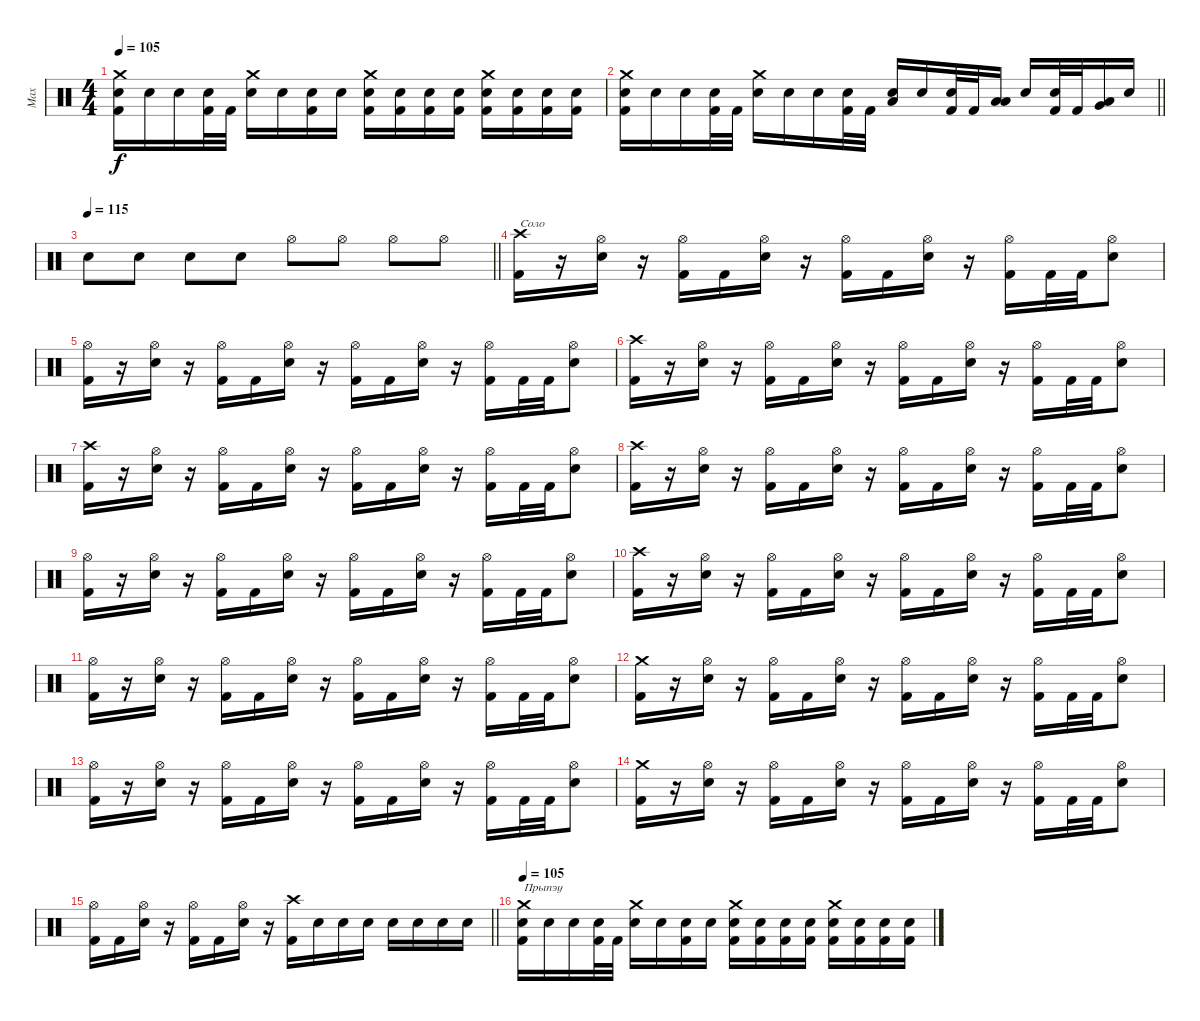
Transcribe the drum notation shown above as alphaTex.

\track ("Max" "Max") {instrument percussion}
\staff {score}
\articulation defaults
\ts (4 4)
\tempo 105
\clef neutral
\ks c
("Crash medium (hit)" "Snare (hit)" "Kick (hit) 2").16{dy f} "Snare (hit)".16 "Snare (hit)".16 ("Snare (hit)" "Kick (hit) 2").32 "Kick (hit) 2".32 ("Crash medium (hit)" "Electric Snare (hit)").16 "Snare (hit)".16 ("Snare (hit)" "Kick (hit) 2").16 "Snare (hit)".16 ("Crash medium (hit)" "Snare (hit)" "Kick (hit) 2").16 ("Snare (hit)" "Kick (hit) 2").16 ("Snare (hit)" "Kick (hit) 2").16 ("Snare (hit)" "Kick (hit) 2").16 ("Crash medium (hit)" "Electric Snare (hit)" "Kick (hit) 2").16 ("Snare (hit)" "Kick (hit) 2").16 ("Snare (hit)" "Kick (hit) 2").16 ("Snare (hit)" "Kick (hit) 2").16 |
\barLineRight lightlight
("Crash medium (hit)" "Snare (hit)" "Kick (hit) 2").16 "Snare (hit)".16 "Snare (hit)".16 ("Snare (hit)" "Kick (hit) 2").32 "Kick (hit) 2".32 ("Crash medium (hit)" "Electric Snare (hit)").16 "Snare (hit)".16 "Snare (hit)".16 ("Snare (hit)" "Kick (hit) 2").32 "Kick (hit) 2".32 ("Low Floor Tom (hit)" "Electric Snare (hit)").16 "Snare (hit)".16 ("Snare (hit)" "Kick (hit) 2").32 "Kick (hit) 2".32 ("Low Floor Tom (hit)" "Low Tom (hit)").16 "Snare (hit)".16 ("Snare (hit)" "Kick (hit) 2").32 "Kick (hit) 2".32 ("Low Floor Tom (hit)" "Very Low Tom (hit)").16 "Snare (hit)".16 |
\tempo 115
\barLineRight lightlight "Snare (hit)".8 "Snare (hit)".8 "Snare (hit)".8 "Snare (hit)".8 "Hi-Hat (open)".8 "Hi-Hat (open)".8 "Hi-Hat (open)".8 "Hi-Hat (open)".8
|
("Crash high (hit)" "Kick (hit) 2").16{txt "Соло"} r.16 ("Hi-Hat (open)" "Electric Snare (hit)").16 r.16 ("Hi-Hat (open)" "Kick (hit) 2").16 "Kick (hit) 2".16 ("Hi-Hat (open)" "Electric Snare (hit)").16 r.16 ("Hi-Hat (open)" "Kick (hit) 2").16 "Kick (hit) 2".16 ("Hi-Hat (open)" "Electric Snare (hit)").16 r.16 ("Hi-Hat (open)" "Kick (hit) 2").16 "Kick (hit) 2".32 "Kick (hit) 2".32 ("Hi-Hat (open)" "Electric Snare (hit)").8 |
("Hi-Hat (open)" "Kick (hit) 2").16 r.16 ("Hi-Hat (open)" "Electric Snare (hit)").16 r.16 ("Hi-Hat (open)" "Kick (hit) 2").16 "Kick (hit) 2".16 ("Hi-Hat (open)" "Electric Snare (hit)").16 r.16 ("Hi-Hat (open)" "Kick (hit) 2").16 "Kick (hit) 2".16 ("Hi-Hat (open)" "Electric Snare (hit)").16 r.16 ("Hi-Hat (open)" "Kick (hit) 2").16 "Kick (hit) 2".32 "Kick (hit) 2".32 ("Hi-Hat (open)" "Electric Snare (hit)").8 |
("Crash high (hit)" "Kick (hit) 2").16 r.16 ("Hi-Hat (open)" "Electric Snare (hit)").16 r.16 ("Hi-Hat (open)" "Kick (hit) 2").16 "Kick (hit) 2".16 ("Hi-Hat (open)" "Electric Snare (hit)").16 r.16 ("Hi-Hat (open)" "Kick (hit) 2").16 "Kick (hit) 2".16 ("Hi-Hat (open)" "Electric Snare (hit)").16 r.16 ("Hi-Hat (open)" "Kick (hit) 2").16 "Kick (hit) 2".32 "Kick (hit) 2".32 ("Hi-Hat (open)" "Electric Snare (hit)").8 |
("Crash high (hit)" "Kick (hit) 2").16 r.16 ("Hi-Hat (open)" "Electric Snare (hit)").16 r.16 ("Hi-Hat (open)" "Kick (hit) 2").16 "Kick (hit) 2".16 ("Hi-Hat (open)" "Electric Snare (hit)").16 r.16 ("Hi-Hat (open)" "Kick (hit) 2").16 "Kick (hit) 2".16 ("Hi-Hat (open)" "Electric Snare (hit)").16 r.16 ("Hi-Hat (open)" "Kick (hit) 2").16 "Kick (hit) 2".32 "Kick (hit) 2".32 ("Hi-Hat (open)" "Electric Snare (hit)").8 |
("Crash high (hit)" "Kick (hit) 2").16 r.16 ("Hi-Hat (open)" "Electric Snare (hit)").16 r.16 ("Hi-Hat (open)" "Kick (hit) 2").16 "Kick (hit) 2".16 ("Hi-Hat (open)" "Electric Snare (hit)").16 r.16 ("Hi-Hat (open)" "Kick (hit) 2").16 "Kick (hit) 2".16 ("Hi-Hat (open)" "Electric Snare (hit)").16 r.16 ("Hi-Hat (open)" "Kick (hit) 2").16 "Kick (hit) 2".32 "Kick (hit) 2".32 ("Hi-Hat (open)" "Electric Snare (hit)").8 |
("Hi-Hat (open)" "Kick (hit) 2").16 r.16 ("Hi-Hat (open)" "Electric Snare (hit)").16 r.16 ("Hi-Hat (open)" "Kick (hit) 2").16 "Kick (hit) 2".16 ("Hi-Hat (open)" "Electric Snare (hit)").16 r.16 ("Hi-Hat (open)" "Kick (hit) 2").16 "Kick (hit) 2".16 ("Hi-Hat (open)" "Electric Snare (hit)").16 r.16 ("Hi-Hat (open)" "Kick (hit) 2").16 "Kick (hit) 2".32 "Kick (hit) 2".32 ("Hi-Hat (open)" "Electric Snare (hit)").8 |
("Crash high (hit)" "Kick (hit) 2").16 r.16 ("Hi-Hat (open)" "Electric Snare (hit)").16 r.16 ("Hi-Hat (open)" "Kick (hit) 2").16 "Kick (hit) 2".16 ("Hi-Hat (open)" "Electric Snare (hit)").16 r.16 ("Hi-Hat (open)" "Kick (hit) 2").16 "Kick (hit) 2".16 ("Hi-Hat (open)" "Electric Snare (hit)").16 r.16 ("Hi-Hat (open)" "Kick (hit) 2").16 "Kick (hit) 2".32 "Kick (hit) 2".32 ("Hi-Hat (open)" "Electric Snare (hit)").8 |
("Hi-Hat (open)" "Kick (hit) 2").16 r.16 ("Hi-Hat (open)" "Electric Snare (hit)").16 r.16 ("Hi-Hat (open)" "Kick (hit) 2").16 "Kick (hit) 2".16 ("Hi-Hat (open)" "Electric Snare (hit)").16 r.16 ("Hi-Hat (open)" "Kick (hit) 2").16 "Kick (hit) 2".16 ("Hi-Hat (open)" "Electric Snare (hit)").16 r.16 ("Hi-Hat (open)" "Kick (hit) 2").16 "Kick (hit) 2".32 "Kick (hit) 2".32 ("Hi-Hat (open)" "Electric Snare (hit)").8 |
("Crash medium (hit)" "Kick (hit) 2").16 r.16 ("Hi-Hat (open)" "Electric Snare (hit)").16 r.16 ("Hi-Hat (open)" "Kick (hit) 2").16 "Kick (hit) 2".16 ("Hi-Hat (open)" "Electric Snare (hit)").16 r.16 ("Hi-Hat (open)" "Kick (hit) 2").16 "Kick (hit) 2".16 ("Hi-Hat (open)" "Electric Snare (hit)").16 r.16 ("Hi-Hat (open)" "Kick (hit) 2").16 "Kick (hit) 2".32 "Kick (hit) 2".32 ("Hi-Hat (open)" "Electric Snare (hit)").8 |
("Hi-Hat (open)" "Kick (hit) 2").16 r.16 ("Hi-Hat (open)" "Electric Snare (hit)").16 r.16 ("Hi-Hat (open)" "Kick (hit) 2").16 "Kick (hit) 2".16 ("Hi-Hat (open)" "Electric Snare (hit)").16 r.16 ("Hi-Hat (open)" "Kick (hit) 2").16 "Kick (hit) 2".16 ("Hi-Hat (open)" "Electric Snare (hit)").16 r.16 ("Hi-Hat (open)" "Kick (hit) 2").16 "Kick (hit) 2".32 "Kick (hit) 2".32 ("Hi-Hat (open)" "Electric Snare (hit)").8 |
("Crash medium (hit)" "Kick (hit) 2").16 r.16 ("Hi-Hat (open)" "Electric Snare (hit)").16 r.16 ("Hi-Hat (open)" "Kick (hit) 2").16 "Kick (hit) 2".16 ("Hi-Hat (open)" "Electric Snare (hit)").16 r.16 ("Hi-Hat (open)" "Kick (hit) 2").16 "Kick (hit) 2".16 ("Hi-Hat (open)" "Electric Snare (hit)").16 r.16 ("Hi-Hat (open)" "Kick (hit) 2").16 "Kick (hit) 2".32 "Kick (hit) 2".32 ("Hi-Hat (open)" "Electric Snare (hit)").8 |
\barLineRight lightlight
("Hi-Hat (open)" "Kick (hit) 2").16 "Kick (hit) 2".16 ("Hi-Hat (open)" "Electric Snare (hit)").16 r.16 ("Hi-Hat (open)" "Kick (hit) 2").16 "Kick (hit) 2".16 ("Hi-Hat (open)" "Electric Snare (hit)").16 r.16 ("Crash high (hit)" "Kick (hit) 2").16 "Electric Snare (hit)".16 "Electric Snare (hit)".16 "Electric Snare (hit)".16 "Electric Snare (hit)".16 "Electric Snare (hit)".16 "Electric Snare (hit)".16 "Electric Snare (hit)".16 |
\tempo 105
("Crash medium (hit)" "Snare (hit)" "Kick (hit) 2").16{txt "Прыпэу "} "Snare (hit)".16 "Snare (hit)".16 ("Snare (hit)" "Kick (hit) 2").32 "Kick (hit) 2".32 ("Crash medium (hit)" "Electric Snare (hit)").16 "Snare (hit)".16 ("Snare (hit)" "Kick (hit) 2").16 "Snare (hit)".16 ("Crash medium (hit)" "Snare (hit)" "Kick (hit) 2").16 ("Snare (hit)" "Kick (hit) 2").16 ("Snare (hit)" "Kick (hit) 2").16 ("Snare (hit)" "Kick (hit) 2").16 ("Crash medium (hit)" "Electric Snare (hit)" "Kick (hit) 2").16 ("Snare (hit)" "Kick (hit) 2").16 ("Snare (hit)" "Kick (hit) 2").16 ("Snare (hit)" "Kick (hit) 2").16
